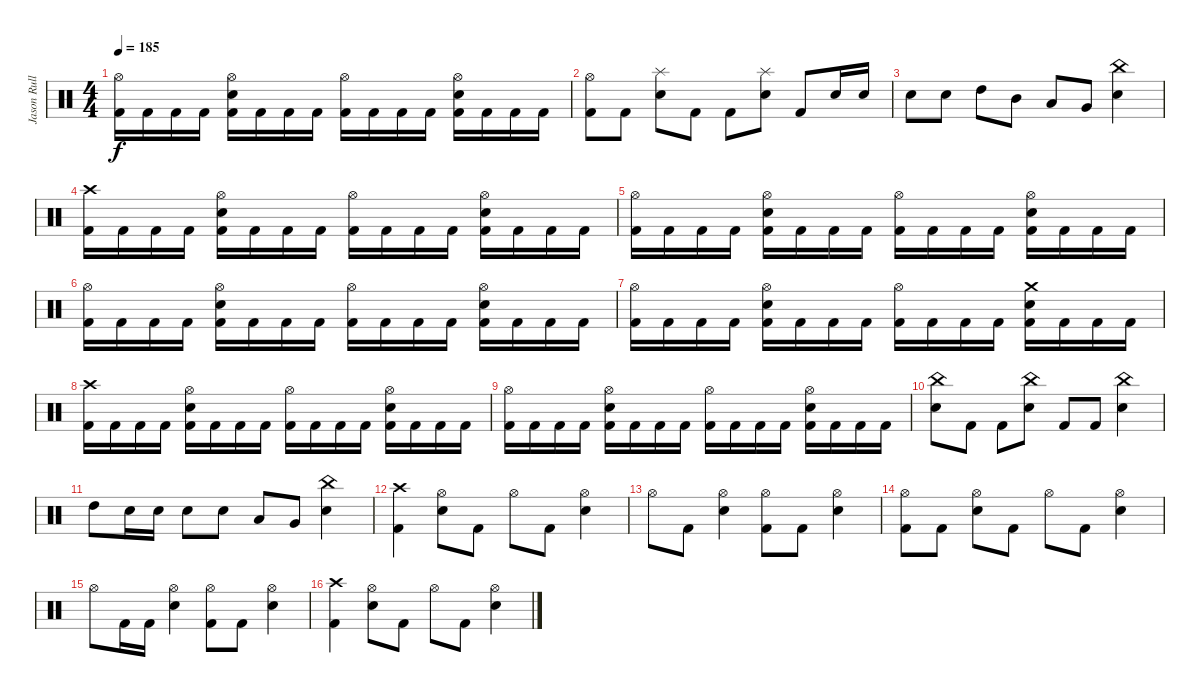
\track ("Jason Rullo" "Jason Rull") {instrument percussion}
\staff {score}
\articulation defaults
\ts (4 4)
\tempo 185
\clef neutral
\ks c
("Hi-Hat (open)" "Kick (hit) 2").16{dy f} "Kick (hit) 2".16 "Kick (hit) 2".16 "Kick (hit) 2".16 ("Hi-Hat (open)" "Snare (hit) 2" "Kick (hit) 2").16 "Kick (hit) 2".16 "Kick (hit) 2".16 "Kick (hit) 2".16 ("Hi-Hat (open)" "Kick (hit) 2").16 "Kick (hit) 2".16 "Kick (hit) 2".16 "Kick (hit) 2".16 ("Hi-Hat (open)" "Snare (hit) 2" "Kick (hit) 2").16 "Kick (hit) 2".16 "Kick (hit) 2".16 "Kick (hit) 2".16 |
("Hi-Hat (open)" "Kick (hit) 2").8 "Kick (hit) 2".8 ("Splash (hit)" "Snare (hit) 2").8 "Kick (hit) 2".8 "Kick (hit) 2".8 ("Splash (hit)" "Snare (hit) 2").8 "Kick (hit) 2".8 "Snare (hit) 2".16 "Snare (hit) 2".16 |
"Snare (hit) 2".8 "Snare (hit) 2".8 "High Tom (hit)".8 "Mid Tom (hit)".8 "Low Tom (hit)".8 "Very Low Tom (hit)".8 ("China (hit)" "Snare (hit) 2").4 |
("Crash high (hit)" "Kick (hit) 2").16 "Kick (hit) 2".16 "Kick (hit) 2".16 "Kick (hit) 2".16 ("Hi-Hat (open)" "Snare (hit) 2" "Kick (hit) 2").16 "Kick (hit) 2".16 "Kick (hit) 2".16 "Kick (hit) 2".16 ("Hi-Hat (open)" "Kick (hit) 2").16 "Kick (hit) 2".16 "Kick (hit) 2".16 "Kick (hit) 2".16 ("Hi-Hat (open)" "Snare (hit) 2" "Kick (hit) 2").16 "Kick (hit) 2".16 "Kick (hit) 2".16 "Kick (hit) 2".16 |
("Hi-Hat (open)" "Kick (hit) 2").16 "Kick (hit) 2".16 "Kick (hit) 2".16 "Kick (hit) 2".16 ("Hi-Hat (open)" "Snare (hit) 2" "Kick (hit) 2").16 "Kick (hit) 2".16 "Kick (hit) 2".16 "Kick (hit) 2".16 ("Hi-Hat (open)" "Kick (hit) 2").16 "Kick (hit) 2".16 "Kick (hit) 2".16 "Kick (hit) 2".16 ("Hi-Hat (open)" "Snare (hit) 2" "Kick (hit) 2").16 "Kick (hit) 2".16 "Kick (hit) 2".16 "Kick (hit) 2".16 |
("Hi-Hat (open)" "Kick (hit) 2").16 "Kick (hit) 2".16 "Kick (hit) 2".16 "Kick (hit) 2".16 ("Hi-Hat (open)" "Snare (hit) 2" "Kick (hit) 2").16 "Kick (hit) 2".16 "Kick (hit) 2".16 "Kick (hit) 2".16 ("Hi-Hat (open)" "Kick (hit) 2").16 "Kick (hit) 2".16 "Kick (hit) 2".16 "Kick (hit) 2".16 ("Hi-Hat (open)" "Snare (hit) 2" "Kick (hit) 2").16 "Kick (hit) 2".16 "Kick (hit) 2".16 "Kick (hit) 2".16 |
("Hi-Hat (open)" "Kick (hit) 2").16 "Kick (hit) 2".16 "Kick (hit) 2".16 "Kick (hit) 2".16 ("Hi-Hat (open)" "Snare (hit) 2" "Kick (hit) 2").16 "Kick (hit) 2".16 "Kick (hit) 2".16 "Kick (hit) 2".16 ("Hi-Hat (open)" "Kick (hit) 2").16 "Kick (hit) 2".16 "Kick (hit) 2".16 "Kick (hit) 2".16 ("Crash medium (hit)" "Snare (hit) 2" "Kick (hit) 2").16 "Kick (hit) 2".16 "Kick (hit) 2".16 "Kick (hit) 2".16 |
("Crash high (hit)" "Kick (hit) 2").16 "Kick (hit) 2".16 "Kick (hit) 2".16 "Kick (hit) 2".16 ("Hi-Hat (open)" "Snare (hit) 2" "Kick (hit) 2").16 "Kick (hit) 2".16 "Kick (hit) 2".16 "Kick (hit) 2".16 ("Hi-Hat (open)" "Kick (hit) 2").16 "Kick (hit) 2".16 "Kick (hit) 2".16 "Kick (hit) 2".16 ("Hi-Hat (open)" "Snare (hit) 2" "Kick (hit) 2").16 "Kick (hit) 2".16 "Kick (hit) 2".16 "Kick (hit) 2".16 |
("Hi-Hat (open)" "Kick (hit) 2").16 "Kick (hit) 2".16 "Kick (hit) 2".16 "Kick (hit) 2".16 ("Hi-Hat (open)" "Snare (hit) 2" "Kick (hit) 2").16 "Kick (hit) 2".16 "Kick (hit) 2".16 "Kick (hit) 2".16 ("Hi-Hat (open)" "Kick (hit) 2").16 "Kick (hit) 2".16 "Kick (hit) 2".16 "Kick (hit) 2".16 ("Hi-Hat (open)" "Snare (hit) 2" "Kick (hit) 2").16 "Kick (hit) 2".16 "Kick (hit) 2".16 "Kick (hit) 2".16 |
("China (hit)" "Snare (hit) 2").8 "Kick (hit) 2".8 "Kick (hit) 2".8 ("China (hit)" "Snare (hit) 2").8 "Kick (hit) 2".8 "Kick (hit) 2".8 ("China (hit)" "Snare (hit) 2").4 |
"High Tom (hit)".8 "Snare (hit) 2".16 "Snare (hit) 2".16 "Snare (hit) 2".8 "Snare (hit) 2".8 "Low Tom (hit)".8 "Very Low Tom (hit)".8 ("China (hit)" "Snare (hit) 2").4 |
("Crash high (hit)" "Kick (hit) 2").4 ("Hi-Hat (open)" "Snare (hit) 2").8 "Kick (hit) 2".8 "Hi-Hat (open)".8 "Kick (hit) 2".8 ("Hi-Hat (open)" "Snare (hit) 2").4 |
"Hi-Hat (open)".8 "Kick (hit) 2".8 ("Hi-Hat (open)" "Snare (hit) 2").4 ("Hi-Hat (open)" "Kick (hit) 2").8 "Kick (hit) 2".8 ("Hi-Hat (open)" "Snare (hit) 2").4 |
("Hi-Hat (open)" "Kick (hit) 2").8 "Kick (hit) 2".8 ("Hi-Hat (open)" "Snare (hit) 2").8 "Kick (hit) 2".8 "Hi-Hat (open)".8 "Kick (hit) 2".8 ("Hi-Hat (open)" "Snare (hit) 2").4 |
"Hi-Hat (open)".8 "Kick (hit) 2".16 "Kick (hit) 2".16 ("Hi-Hat (open)" "Snare (hit) 2").4 ("Hi-Hat (open)" "Kick (hit) 2").8 "Kick (hit) 2".8 ("Hi-Hat (open)" "Snare (hit) 2").4 |
("Crash high (hit)" "Kick (hit) 2").4 ("Hi-Hat (open)" "Snare (hit) 2").8 "Kick (hit) 2".8 "Hi-Hat (open)".8 "Kick (hit) 2".8 ("Hi-Hat (open)" "Snare (hit) 2").4
